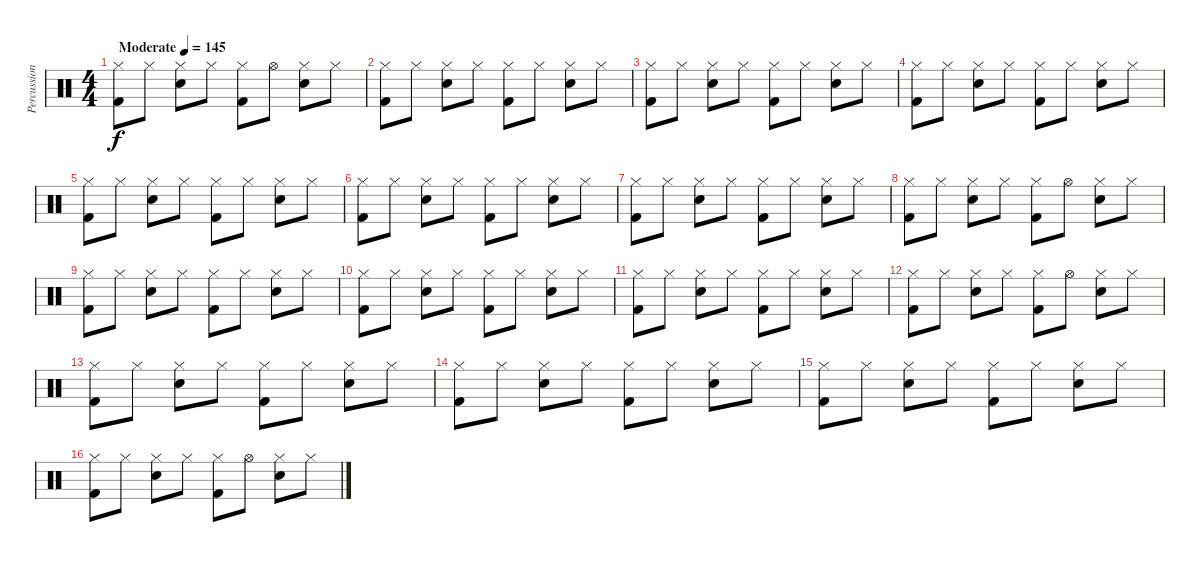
\track ("Percussion" "Percussion") {instrument percussion}
\staff {score}
\articulation defaults
\ts (4 4)
\tempo (145 "Moderate")
\clef neutral
\ks c
("Hi-Hat (closed)" "Kick (hit) 2").8{dy f} "Hi-Hat (closed)".8 ("Hi-Hat (closed)" "Snare (hit) 2").8 "Hi-Hat (closed)".8 ("Hi-Hat (closed)" "Kick (hit) 2").8 "Hi-Hat (open)".8 ("Hi-Hat (closed)" "Snare (hit) 2").8 "Hi-Hat (closed)".8 |
("Hi-Hat (closed)" "Kick (hit) 2").8 "Hi-Hat (closed)".8 ("Hi-Hat (closed)" "Snare (hit) 2").8 "Hi-Hat (closed)".8 ("Hi-Hat (closed)" "Kick (hit) 2").8 "Hi-Hat (closed)".8 ("Hi-Hat (closed)" "Snare (hit) 2").8 "Hi-Hat (closed)".8 |
("Hi-Hat (closed)" "Kick (hit) 2").8 "Hi-Hat (closed)".8 ("Hi-Hat (closed)" "Snare (hit) 2").8 "Hi-Hat (closed)".8 ("Hi-Hat (closed)" "Kick (hit) 2").8 "Hi-Hat (closed)".8 ("Hi-Hat (closed)" "Snare (hit) 2").8 "Hi-Hat (closed)".8 |
("Hi-Hat (closed)" "Kick (hit) 2").8 "Hi-Hat (closed)".8 ("Hi-Hat (closed)" "Snare (hit) 2").8 "Hi-Hat (closed)".8 ("Hi-Hat (closed)" "Kick (hit) 2").8 "Hi-Hat (closed)".8 ("Hi-Hat (closed)" "Snare (hit) 2").8 "Hi-Hat (closed)".8 |
("Hi-Hat (closed)" "Kick (hit) 2").8 "Hi-Hat (closed)".8 ("Hi-Hat (closed)" "Snare (hit) 2").8 "Hi-Hat (closed)".8 ("Hi-Hat (closed)" "Kick (hit) 2").8 "Hi-Hat (closed)".8 ("Hi-Hat (closed)" "Snare (hit) 2").8 "Hi-Hat (closed)".8 |
("Hi-Hat (closed)" "Kick (hit) 2").8 "Hi-Hat (closed)".8 ("Hi-Hat (closed)" "Snare (hit) 2").8 "Hi-Hat (closed)".8 ("Hi-Hat (closed)" "Kick (hit) 2").8 "Hi-Hat (closed)".8 ("Hi-Hat (closed)" "Snare (hit) 2").8 "Hi-Hat (closed)".8 |
("Hi-Hat (closed)" "Kick (hit) 2").8 "Hi-Hat (closed)".8 ("Hi-Hat (closed)" "Snare (hit) 2").8 "Hi-Hat (closed)".8 ("Hi-Hat (closed)" "Kick (hit) 2").8 "Hi-Hat (closed)".8 ("Hi-Hat (closed)" "Snare (hit) 2").8 "Hi-Hat (closed)".8 |
("Hi-Hat (closed)" "Kick (hit) 2").8 "Hi-Hat (closed)".8 ("Hi-Hat (closed)" "Snare (hit) 2").8 "Hi-Hat (closed)".8 ("Hi-Hat (closed)" "Kick (hit) 2").8 "Hi-Hat (open)".8 ("Hi-Hat (closed)" "Snare (hit) 2").8 "Hi-Hat (closed)".8 |
("Hi-Hat (closed)" "Kick (hit) 2").8 "Hi-Hat (closed)".8 ("Hi-Hat (closed)" "Snare (hit) 2").8 "Hi-Hat (closed)".8 ("Hi-Hat (closed)" "Kick (hit) 2").8 "Hi-Hat (closed)".8 ("Hi-Hat (closed)" "Snare (hit) 2").8 "Hi-Hat (closed)".8 |
("Hi-Hat (closed)" "Kick (hit) 2").8 "Hi-Hat (closed)".8 ("Hi-Hat (closed)" "Snare (hit) 2").8 "Hi-Hat (closed)".8 ("Hi-Hat (closed)" "Kick (hit) 2").8 "Hi-Hat (closed)".8 ("Hi-Hat (closed)" "Snare (hit) 2").8 "Hi-Hat (closed)".8 |
("Hi-Hat (closed)" "Kick (hit) 2").8 "Hi-Hat (closed)".8 ("Hi-Hat (closed)" "Snare (hit) 2").8 "Hi-Hat (closed)".8 ("Hi-Hat (closed)" "Kick (hit) 2").8 "Hi-Hat (closed)".8 ("Hi-Hat (closed)" "Snare (hit) 2").8 "Hi-Hat (closed)".8 |
("Hi-Hat (closed)" "Kick (hit) 2").8 "Hi-Hat (closed)".8 ("Hi-Hat (closed)" "Snare (hit) 2").8 "Hi-Hat (closed)".8 ("Hi-Hat (closed)" "Kick (hit) 2").8 "Hi-Hat (open)".8 ("Hi-Hat (closed)" "Snare (hit) 2").8 "Hi-Hat (closed)".8 |
("Hi-Hat (closed)" "Kick (hit) 2").8 "Hi-Hat (closed)".8 ("Hi-Hat (closed)" "Snare (hit) 2").8 "Hi-Hat (closed)".8 ("Hi-Hat (closed)" "Kick (hit) 2").8 "Hi-Hat (closed)".8 ("Hi-Hat (closed)" "Snare (hit) 2").8 "Hi-Hat (closed)".8 |
("Hi-Hat (closed)" "Kick (hit) 2").8 "Hi-Hat (closed)".8 ("Hi-Hat (closed)" "Snare (hit) 2").8 "Hi-Hat (closed)".8 ("Hi-Hat (closed)" "Kick (hit) 2").8 "Hi-Hat (closed)".8 ("Hi-Hat (closed)" "Snare (hit) 2").8 "Hi-Hat (closed)".8 |
("Hi-Hat (closed)" "Kick (hit) 2").8 "Hi-Hat (closed)".8 ("Hi-Hat (closed)" "Snare (hit) 2").8 "Hi-Hat (closed)".8 ("Hi-Hat (closed)" "Kick (hit) 2").8 "Hi-Hat (closed)".8 ("Hi-Hat (closed)" "Snare (hit) 2").8 "Hi-Hat (closed)".8 |
("Hi-Hat (closed)" "Kick (hit) 2").8 "Hi-Hat (closed)".8 ("Hi-Hat (closed)" "Snare (hit) 2").8 "Hi-Hat (closed)".8 ("Hi-Hat (closed)" "Kick (hit) 2").8 "Hi-Hat (open)".8 ("Hi-Hat (closed)" "Snare (hit) 2").8 "Hi-Hat (closed)".8
